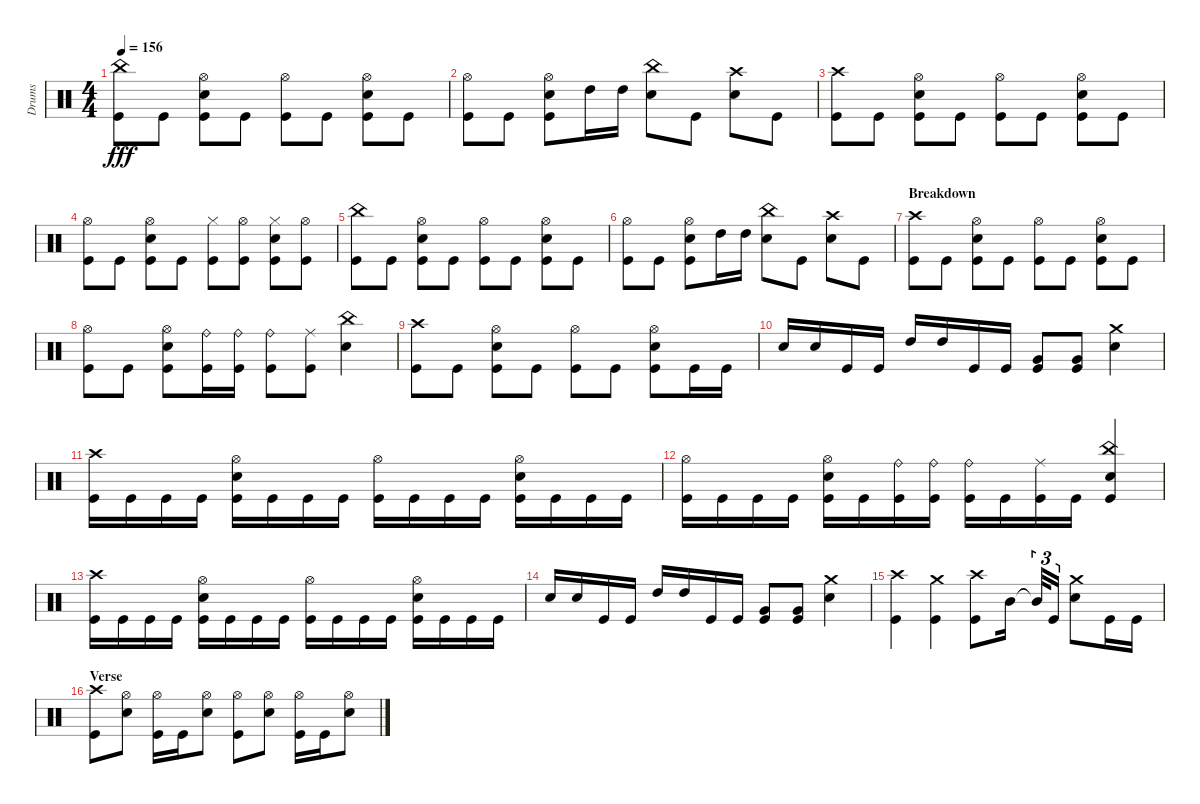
\track ("Drums" "Drums") {instrument percussion}
\staff {score}
\articulation defaults
\ts (4 4)
\tempo 156
\clef neutral
\ks aminor
("Kick (hit)" "China (hit)").8{dy fff} "Kick (hit)".8 ("Snare (hit) 2" "Hi-Hat (open)" "Kick (hit)").8 "Kick (hit)".8 ("Kick (hit)" "Hi-Hat (open)").8 "Kick (hit)".8 ("Kick (hit)" "Snare (hit) 2" "Hi-Hat (open)").8 "Kick (hit)".8 |
("Kick (hit)" "Hi-Hat (open)").8 "Kick (hit)".8 ("Snare (hit) 2" "Hi-Hat (open)" "Kick (hit)").8 "High Tom (hit)".16 "High Tom (hit)".16 ("Snare (hit) 2" "China (hit)").8 "Kick (hit)".8 ("Snare (hit) 2" "Crash high (hit)").8 "Kick (hit)".8 |
("Crash high (hit)" "Kick (hit)").8 "Kick (hit)".8 ("Kick (hit)" "Snare (hit) 2" "Hi-Hat (open)").8 "Kick (hit)".8 ("Hi-Hat (open)" "Kick (hit)").8 "Kick (hit)".8 ("Hi-Hat (open)" "Snare (hit) 2" "Kick (hit)").8 "Kick (hit)".8 |
("Hi-Hat (open)" "Kick (hit)").8 "Kick (hit)".8 ("Kick (hit)" "Hi-Hat (open)" "Snare (hit) 2").8 "Kick (hit)".8 ("Hi-Hat (closed)" "Kick (hit)").8 ("Hi-Hat (open)" "Kick (hit)").8 ("Snare (hit) 2" "Hi-Hat (closed)" "Kick (hit)").8 ("Hi-Hat (open)" "Kick (hit)").8 |
("Kick (hit)" "China (hit)").8 "Kick (hit)".8 ("Kick (hit)" "Hi-Hat (open)" "Snare (hit) 2").8 "Kick (hit)".8 ("Kick (hit)" "Hi-Hat (open)").8 "Kick (hit)".8 ("Kick (hit)" "Hi-Hat (open)" "Snare (hit) 2").8 "Kick (hit)".8 |
("Hi-Hat (open)" "Kick (hit)").8 "Kick (hit)".8 ("Hi-Hat (open)" "Snare (hit) 2" "Kick (hit)").8 "High Tom (hit)".16 "High Tom (hit)".16 ("Snare (hit) 2" "China (hit)").8 "Kick (hit)".8 ("Crash high (hit)" "Snare (hit) 2").8 "Kick (hit)".8 |
\section ("" "Breakdown")
("Kick (hit)" "Crash high (hit)").8 "Kick (hit)".8 ("Hi-Hat (open)" "Kick (hit)" "Snare (hit) 2").8 "Kick (hit)".8 ("Kick (hit)" "Hi-Hat (open)").8 "Kick (hit)".8 ("Snare (hit) 2" "Hi-Hat (open)" "Kick (hit)").8 "Kick (hit)".8 |
("Kick (hit)" "Hi-Hat (open)").8 "Kick (hit)".8 ("Kick (hit)" "Snare (hit) 2" "Hi-Hat (open)").8 ("Ride (bell)" "Kick (hit)").16 ("Ride (bell)" "Kick (hit)").16 ("Ride (bell)" "Kick (hit)").8 ("Kick (hit)" "Ride (middle)").8 ("China (hit)" "Snare (hit) 2").4 |
("Crash high (hit)" "Kick (hit)").8 "Kick (hit)".8 ("Hi-Hat (open)" "Snare (hit) 2" "Kick (hit)").8 "Kick (hit)".8 ("Hi-Hat (open)" "Kick (hit)").8 "Kick (hit)".8 ("Snare (hit) 2" "Hi-Hat (open)" "Kick (hit)").8 "Kick (hit)".16 "Kick (hit)".16 |
"Snare (hit) 2".16 "Snare (hit) 2".16 "Kick (hit)".16 "Kick (hit)".16 "High Tom (hit)".16 "High Tom (hit)".16 "Kick (hit)".16 "Kick (hit)".16 ("Kick (hit)" "Very Low Tom (hit)").8 ("Very Low Tom (hit)" "Kick (hit)").8 ("Crash medium (hit)" "Snare (hit) 2").4 |
("Crash high (hit)" "Kick (hit)").16 "Kick (hit)".16 "Kick (hit)".16 "Kick (hit)".16 ("Kick (hit)" "Snare (hit) 2" "Hi-Hat (open)").16 "Kick (hit)".16 "Kick (hit)".16 "Kick (hit)".16 ("Hi-Hat (open)" "Kick (hit)").16 "Kick (hit)".16 "Kick (hit)".16 "Kick (hit)".16 ("Hi-Hat (open)" "Snare (hit) 2" "Kick (hit)").16 "Kick (hit)".16 "Kick (hit)".16 "Kick (hit)".16 |
("Kick (hit)" "Hi-Hat (open)").16 "Kick (hit)".16 "Kick (hit)".16 "Kick (hit)".16 ("Snare (hit) 2" "Kick (hit)" "Hi-Hat (open)").16 "Kick (hit)".16 ("Kick (hit)" "Ride (bell)").16 ("Kick (hit)" "Ride (bell)").16 ("Ride (bell)" "Kick (hit)").16 "Kick (hit)".16 ("Ride (middle)" "Kick (hit)").16 "Kick (hit)".16 ("China (hit)" "Snare (hit) 2" "Kick (hit)").4 |
("Crash high (hit)" "Kick (hit)").16 "Kick (hit)".16 "Kick (hit)".16 "Kick (hit)".16 ("Kick (hit)" "Snare (hit) 2" "Hi-Hat (open)").16 "Kick (hit)".16 "Kick (hit)".16 "Kick (hit)".16 ("Hi-Hat (open)" "Kick (hit)").16 "Kick (hit)".16 "Kick (hit)".16 "Kick (hit)".16 ("Hi-Hat (open)" "Snare (hit) 2" "Kick (hit)").16 "Kick (hit)".16 "Kick (hit)".16 "Kick (hit)".16 |
"Snare (hit) 2".16 "Snare (hit) 2".16 "Kick (hit)".16 "Kick (hit)".16 "High Tom (hit)".16 "High Tom (hit)".16 "Kick (hit)".16 "Kick (hit)".16 ("Kick (hit)" "Very Low Tom (hit)").8 ("Kick (hit)" "Very Low Tom (hit)").8 ("Snare (hit) 2" "Crash medium (hit)").4 |
("Kick (hit)" "Crash high (hit)").4 ("Crash medium (hit)" "Kick (hit)").4 ("Kick (hit)" "Crash high (hit)").8 "Mid Tom (hit)".16 "Mid Tom (hit)"{t}.32{tu (3 2)} "Kick (hit)".16{tu (3 2)} ("Snare (hit) 2" "Crash medium (hit)").8 "Kick (hit)".16 "Kick (hit)".16 |
\section ("" "Verse")
("Crash high (hit)" "Kick (hit)").8 ("Snare (hit) 2" "Hi-Hat (open)").8 ("Hi-Hat (open)" "Kick (hit)").16 "Kick (hit)".16 ("Hi-Hat (open)" "Snare (hit) 2").8 ("Kick (hit)" "Hi-Hat (open)").8 ("Snare (hit) 2" "Hi-Hat (open)").8 ("Kick (hit)" "Hi-Hat (open)").16 "Kick (hit)".16 ("Hi-Hat (open)" "Snare (hit) 2").8
